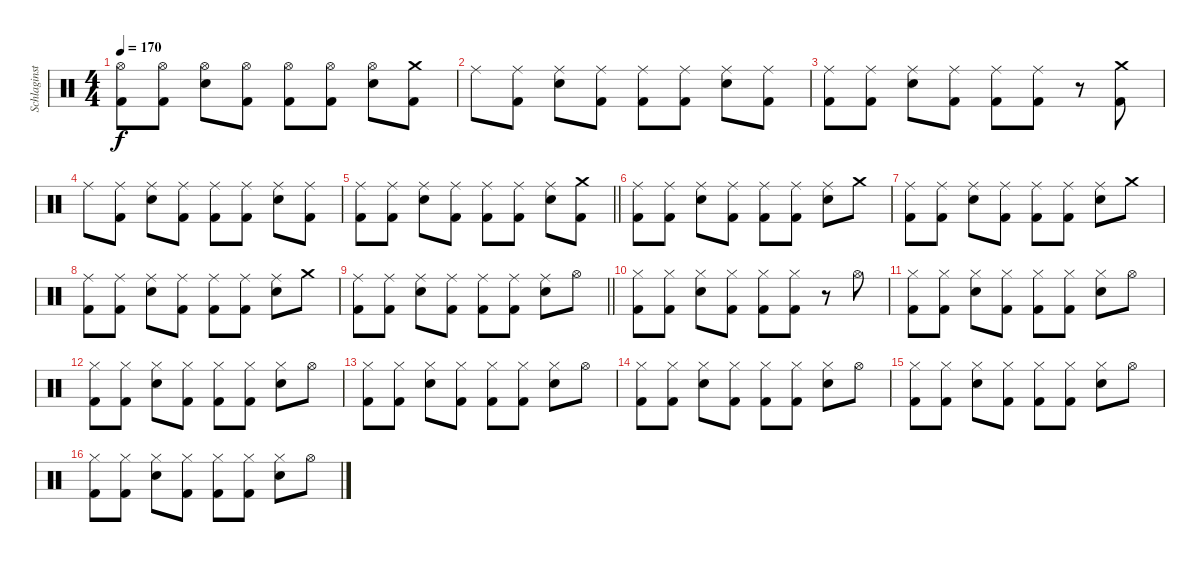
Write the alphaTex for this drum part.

\track ("Schlaginstrumente - Auswahl" "Schlaginst") {instrument percussion}
\staff {score}
\articulation defaults
\ts (4 4)
\tempo 170
\clef neutral
\ks c
("Hi-Hat (open)" "Kick (hit) 2").8{dy f} ("Hi-Hat (open)" "Kick (hit) 2").8 ("Hi-Hat (open)" "Snare (hit) 2").8 ("Hi-Hat (open)" "Kick (hit) 2").8 ("Hi-Hat (open)" "Kick (hit) 2").8 ("Hi-Hat (open)" "Kick (hit) 2").8 ("Hi-Hat (open)" "Snare (hit) 2").8 ("Crash medium (hit)" "Kick (hit) 2").8 |
"Ride (middle)".8 ("Ride (middle)" "Kick (hit) 2").8 ("Ride (middle)" "Snare (hit) 2").8 ("Ride (middle)" "Kick (hit) 2").8 ("Ride (middle)" "Kick (hit) 2").8 ("Ride (middle)" "Kick (hit) 2").8 ("Ride (middle)" "Snare (hit) 2").8 ("Ride (middle)" "Kick (hit) 2").8 |
("Ride (middle)" "Kick (hit) 2").8 ("Ride (middle)" "Kick (hit) 2").8 ("Ride (middle)" "Snare (hit) 2").8 ("Ride (middle)" "Kick (hit) 2").8 ("Ride (middle)" "Kick (hit) 2").8 ("Ride (middle)" "Kick (hit) 2").8 r.8 ("Crash medium (hit)" "Kick (hit) 2").8 |
"Ride (middle)".8 ("Ride (middle)" "Kick (hit) 2").8 ("Ride (middle)" "Snare (hit) 2").8 ("Ride (middle)" "Kick (hit) 2").8 ("Ride (middle)" "Kick (hit) 2").8 ("Ride (middle)" "Kick (hit) 2").8 ("Ride (middle)" "Snare (hit) 2").8 ("Ride (middle)" "Kick (hit) 2").8 |
\barLineRight lightlight
("Ride (middle)" "Kick (hit) 2").8 ("Ride (middle)" "Kick (hit) 2").8 ("Ride (middle)" "Snare (hit) 2").8 ("Ride (middle)" "Kick (hit) 2").8 ("Ride (middle)" "Kick (hit) 2").8 ("Ride (middle)" "Kick (hit) 2").8 ("Ride (middle)" "Snare (hit) 2").8 ("Crash medium (hit)" "Kick (hit) 2").8 |
("Ride (middle)" "Kick (hit) 2").8 ("Ride (middle)" "Kick (hit) 2").8 ("Ride (middle)" "Snare (hit) 2").8 ("Ride (middle)" "Kick (hit) 2").8 ("Ride (middle)" "Kick (hit) 2").8 ("Ride (middle)" "Kick (hit) 2").8 ("Ride (middle)" "Snare (hit) 2").8 "Crash medium (hit)".8 |
("Ride (middle)" "Kick (hit) 2").8 ("Ride (middle)" "Kick (hit) 2").8 ("Ride (middle)" "Snare (hit) 2").8 ("Ride (middle)" "Kick (hit) 2").8 ("Ride (middle)" "Kick (hit) 2").8 ("Ride (middle)" "Kick (hit) 2").8 ("Ride (middle)" "Snare (hit) 2").8 "Crash medium (hit)".8 |
("Ride (middle)" "Kick (hit) 2").8 ("Ride (middle)" "Kick (hit) 2").8 ("Ride (middle)" "Snare (hit) 2").8 ("Ride (middle)" "Kick (hit) 2").8 ("Ride (middle)" "Kick (hit) 2").8 ("Ride (middle)" "Kick (hit) 2").8 ("Ride (middle)" "Snare (hit) 2").8 "Crash medium (hit)".8 |
\barLineRight lightlight
("Ride (middle)" "Kick (hit) 2").8 ("Ride (middle)" "Kick (hit) 2").8 ("Ride (middle)" "Snare (hit) 2").8 ("Ride (middle)" "Kick (hit) 2").8 ("Ride (middle)" "Kick (hit) 2").8 ("Ride (middle)" "Kick (hit) 2").8 ("Ride (middle)" "Snare (hit) 2").8 "Hi-Hat (open)".8 |
("Hi-Hat (closed)" "Kick (hit) 2").8 ("Hi-Hat (closed)" "Kick (hit) 2").8 ("Hi-Hat (closed)" "Snare (hit) 2").8 ("Hi-Hat (closed)" "Kick (hit) 2").8 ("Hi-Hat (closed)" "Kick (hit) 2").8 ("Hi-Hat (closed)" "Kick (hit) 2").8 r.8 "Hi-Hat (open)".8 |
("Hi-Hat (closed)" "Kick (hit) 2").8 ("Hi-Hat (closed)" "Kick (hit) 2").8 ("Hi-Hat (closed)" "Snare (hit) 2").8 ("Hi-Hat (closed)" "Kick (hit) 2").8 ("Hi-Hat (closed)" "Kick (hit) 2").8 ("Hi-Hat (closed)" "Kick (hit) 2").8 ("Hi-Hat (closed)" "Snare (hit) 2").8 "Hi-Hat (open)".8 |
("Hi-Hat (closed)" "Kick (hit) 2").8 ("Hi-Hat (closed)" "Kick (hit) 2").8 ("Hi-Hat (closed)" "Snare (hit) 2").8 ("Hi-Hat (closed)" "Kick (hit) 2").8 ("Hi-Hat (closed)" "Kick (hit) 2").8 ("Hi-Hat (closed)" "Kick (hit) 2").8 ("Hi-Hat (closed)" "Snare (hit) 2").8 "Hi-Hat (open)".8 |
("Hi-Hat (closed)" "Kick (hit) 2").8 ("Hi-Hat (closed)" "Kick (hit) 2").8 ("Hi-Hat (closed)" "Snare (hit) 2").8 ("Hi-Hat (closed)" "Kick (hit) 2").8 ("Hi-Hat (closed)" "Kick (hit) 2").8 ("Hi-Hat (closed)" "Kick (hit) 2").8 ("Hi-Hat (closed)" "Snare (hit) 2").8 "Hi-Hat (open)".8 |
("Hi-Hat (closed)" "Kick (hit) 2").8 ("Hi-Hat (closed)" "Kick (hit) 2").8 ("Hi-Hat (closed)" "Snare (hit) 2").8 ("Hi-Hat (closed)" "Kick (hit) 2").8 ("Hi-Hat (closed)" "Kick (hit) 2").8 ("Hi-Hat (closed)" "Kick (hit) 2").8 ("Hi-Hat (closed)" "Snare (hit) 2").8 "Hi-Hat (open)".8 |
("Hi-Hat (closed)" "Kick (hit) 2").8 ("Hi-Hat (closed)" "Kick (hit) 2").8 ("Hi-Hat (closed)" "Snare (hit) 2").8 ("Hi-Hat (closed)" "Kick (hit) 2").8 ("Hi-Hat (closed)" "Kick (hit) 2").8 ("Hi-Hat (closed)" "Kick (hit) 2").8 ("Hi-Hat (closed)" "Snare (hit) 2").8 "Hi-Hat (open)".8 |
("Hi-Hat (closed)" "Kick (hit) 2").8 ("Hi-Hat (closed)" "Kick (hit) 2").8 ("Hi-Hat (closed)" "Snare (hit) 2").8 ("Hi-Hat (closed)" "Kick (hit) 2").8 ("Hi-Hat (closed)" "Kick (hit) 2").8 ("Hi-Hat (closed)" "Kick (hit) 2").8 ("Hi-Hat (closed)" "Snare (hit) 2").8 "Hi-Hat (open)".8
